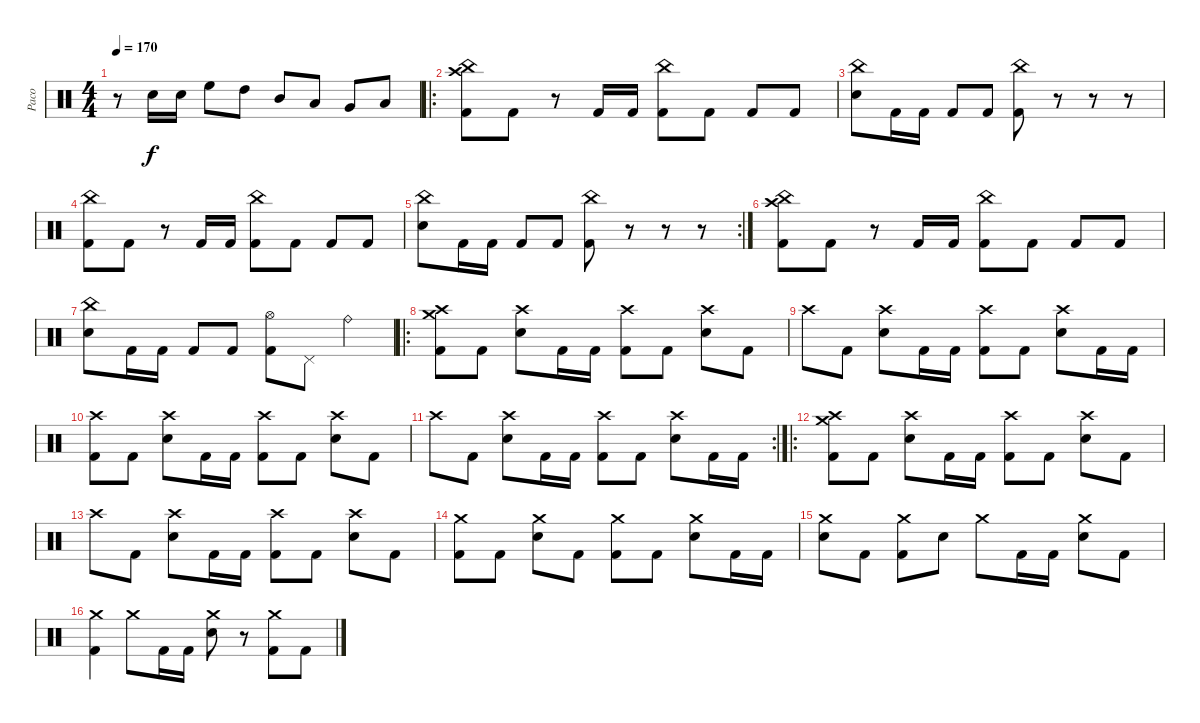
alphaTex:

\track ("Paco" "Paco") {instrument percussion}
\staff {score}
\articulation defaults
\ts (4 4)
\tempo 170
\clef neutral
\ks c
r.8{dy f} "Electric Snare (hit)".16 "Electric Snare (hit)".16 "High Floor Tom (hit)".8 "High Tom (hit)".8 "Mid Tom (hit)".8 "Low Tom (hit)".8 "Very Low Tom (hit)".8 "Low Floor Tom (hit)".8 |
\ro
("Crash high (hit)" "China (hit)" "Kick (hit) 2").8 "Kick (hit) 2".8 r.8 "Kick (hit) 2".16 "Kick (hit) 2".16 ("China (hit)" "Kick (hit) 2").8 "Kick (hit) 2".8 "Kick (hit) 2".8 "Kick (hit) 2".8 |
("China (hit)" "Electric Snare (hit)").8 "Kick (hit) 2".16 "Kick (hit) 2".16 "Kick (hit) 2".8 "Kick (hit) 2".8 ("China (hit)" "Kick (hit) 2").8 r.8 r.8 r.8 |
("China (hit)" "Kick (hit) 2").8 "Kick (hit) 2".8 r.8 "Kick (hit) 2".16 "Kick (hit) 2".16 ("China (hit)" "Kick (hit) 2").8 "Kick (hit) 2".8 "Kick (hit) 2".8 "Kick (hit) 2".8 |
\rc 2
("China (hit)" "Electric Snare (hit)").8 "Kick (hit) 2".16 "Kick (hit) 2".16 "Kick (hit) 2".8 "Kick (hit) 2".8 ("China (hit)" "Kick (hit) 2").8 r.8 r.8 r.8 |
("Crash high (hit)" "China (hit)" "Kick (hit) 2").8 "Kick (hit) 2".8 r.8 "Kick (hit) 2".16 "Kick (hit) 2".16 ("China (hit)" "Kick (hit) 2").8 "Kick (hit) 2".8 "Kick (hit) 2".8 "Kick (hit) 2".8 |
("China (hit)" "Electric Snare (hit)").8 "Kick (hit) 2".16 "Kick (hit) 2".16 "Kick (hit) 2".8 "Kick (hit) 2".8 ("Hi-Hat (open)" "Kick (hit) 2").8 "Pedal Hi-Hat (hit)".8 "Ride (bell)".4 |
\ro
("Crash medium (hit)" "Crash high (hit)" "Kick (hit) 2").8 "Kick (hit) 2".8 ("Crash high (hit)" "Electric Snare (hit)").8 "Kick (hit) 2".16 "Kick (hit) 2".16 ("Crash high (hit)" "Kick (hit) 2").8 "Kick (hit) 2".8 ("Crash high (hit)" "Electric Snare (hit)").8 "Kick (hit) 2".8 |
"Crash high (hit)".8 "Kick (hit) 2".8 ("Crash high (hit)" "Electric Snare (hit)").8 "Kick (hit) 2".16 "Kick (hit) 2".16 ("Crash high (hit)" "Kick (hit) 2").8 "Kick (hit) 2".8 ("Crash high (hit)" "Electric Snare (hit)").8 "Kick (hit) 2".16 "Kick (hit) 2".16 |
("Crash high (hit)" "Kick (hit) 2").8 "Kick (hit) 2".8 ("Crash high (hit)" "Electric Snare (hit)").8 "Kick (hit) 2".16 "Kick (hit) 2".16 ("Crash high (hit)" "Kick (hit) 2").8 "Kick (hit) 2".8 ("Crash high (hit)" "Electric Snare (hit)").8 "Kick (hit) 2".8 |
\rc 2 "Crash high (hit)".8 "Kick (hit) 2".8
("Crash high (hit)" "Electric Snare (hit)").8 "Kick (hit) 2".16 "Kick (hit) 2".16 ("Crash high (hit)" "Kick (hit) 2").8 "Kick (hit) 2".8 ("Crash high (hit)" "Electric Snare (hit)").8 "Kick (hit) 2".16 "Kick (hit) 2".16 |
\ro
("Crash medium (hit)" "Crash high (hit)" "Kick (hit) 2").8 "Kick (hit) 2".8 ("Crash high (hit)" "Electric Snare (hit)").8 "Kick (hit) 2".16 "Kick (hit) 2".16 ("Crash high (hit)" "Kick (hit) 2").8 "Kick (hit) 2".8 ("Crash high (hit)" "Electric Snare (hit)").8 "Kick (hit) 2".8 |
"Crash high (hit)".8 "Kick (hit) 2".8 ("Crash high (hit)" "Electric Snare (hit)").8 "Kick (hit) 2".16 "Kick (hit) 2".16 ("Crash high (hit)" "Kick (hit) 2").8 "Kick (hit) 2".8 ("Crash high (hit)" "Electric Snare (hit)").8 "Kick (hit) 2".8 |
("Crash medium (hit)" "Kick (hit) 2").8 "Kick (hit) 2".8 ("Crash medium (hit)" "Electric Snare (hit)").8 "Kick (hit) 2".8 ("Crash medium (hit)" "Kick (hit) 2").8 "Kick (hit) 2".8 ("Crash medium (hit)" "Electric Snare (hit)").8 "Kick (hit) 2".16 "Kick (hit) 2".16 |
("Crash medium (hit)" "Electric Snare (hit)").8 "Kick (hit) 2".8 ("Crash medium (hit)" "Kick (hit) 2").8 "Electric Snare (hit)".8 "Crash medium (hit)".8 "Kick (hit) 2".16 "Kick (hit) 2".16 ("Crash medium (hit)" "Electric Snare (hit)").8 "Kick (hit) 2".8 |
("Crash medium (hit)" "Kick (hit) 2").4 "Crash medium (hit)".8 "Kick (hit) 2".16 "Kick (hit) 2".16 ("Crash medium (hit)" "Electric Snare (hit)").8 r.8 ("Crash medium (hit)" "Kick (hit) 2").8 "Kick (hit) 2".8
